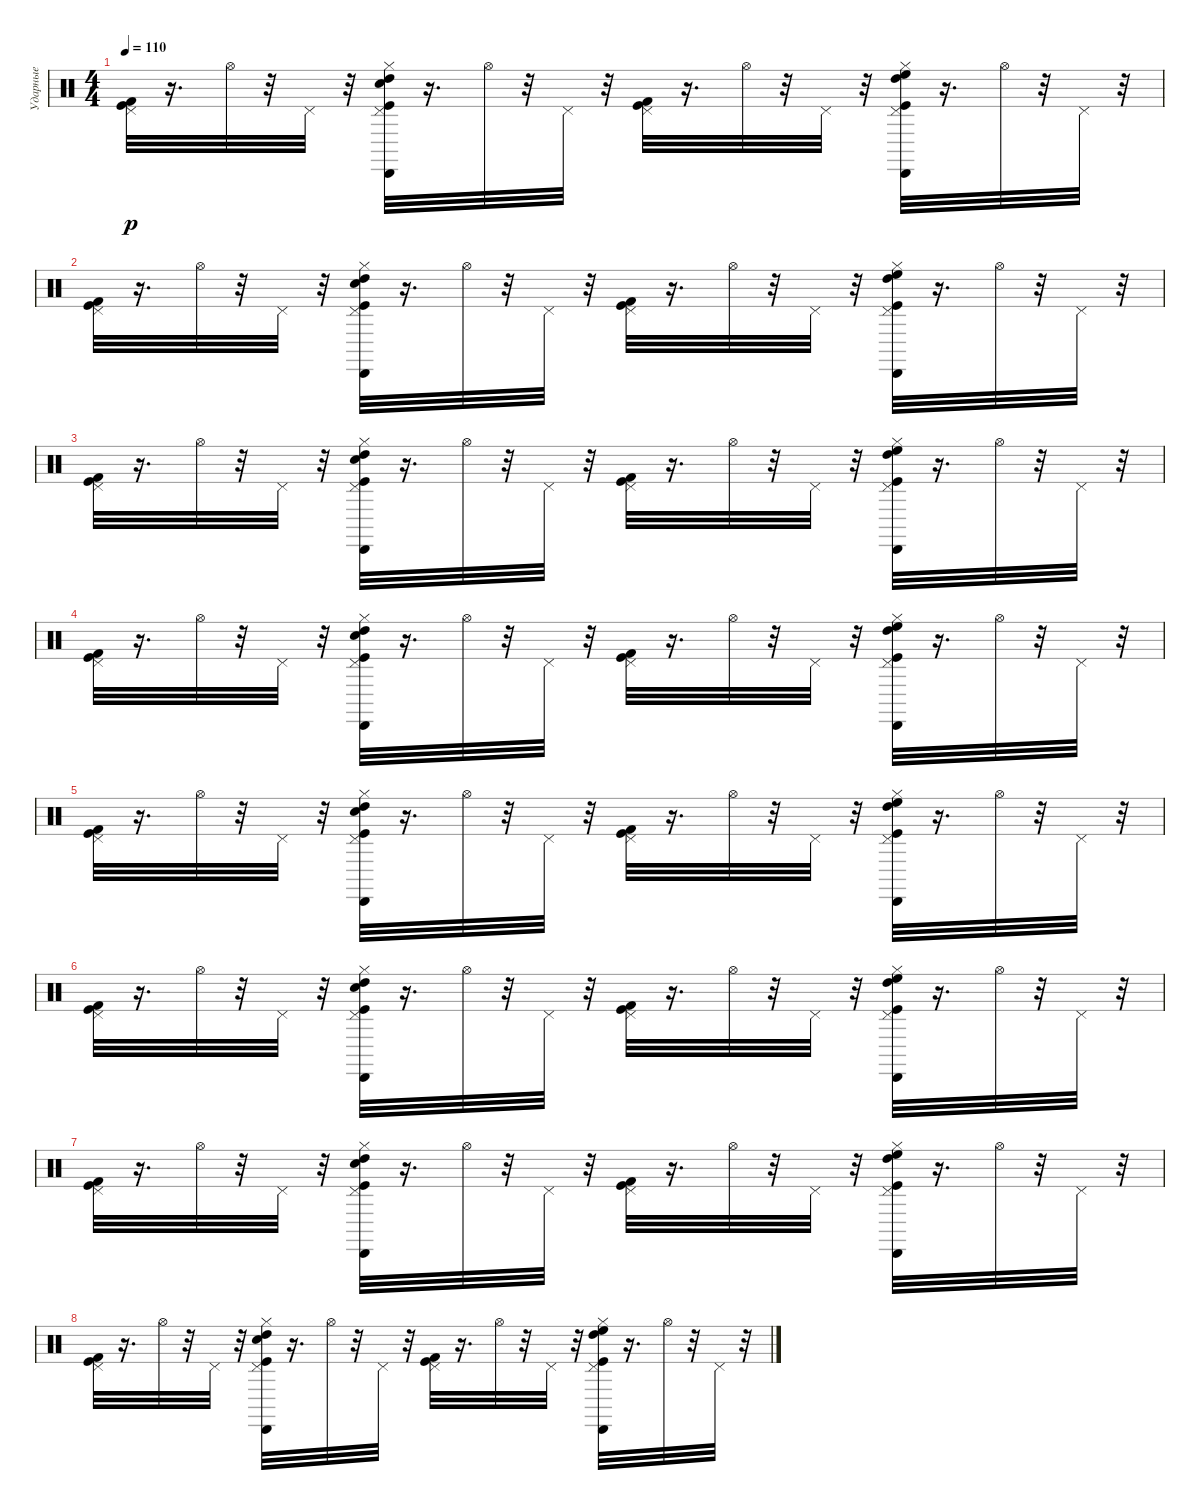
\track ("Ударные" "Ударные") {instrument percussion}
\staff
\articulation defaults
\ts (4 4)
\tempo 110
\clef neutral
\ks c
("Pedal Hi-Hat (hit)" "Kick (hit) 2" "Kick (hit)").32{dy p} r.16{d} "Hi-Hat (open)".32 r.32 "Pedal Hi-Hat (hit)".32 r.32 ("Kick (hit)" "High Tom (hit)" "Cabasa (hit)" "Hi-Hat (closed)" "Pedal Hi-Hat (hit)" "Electric Snare (hit)").32 r.16{d} "Hi-Hat (open)".32 r.32 "Pedal Hi-Hat (hit)".32 r.32 ("Pedal Hi-Hat (hit)" "Kick (hit) 2" "Kick (hit)").32 r.16{d} "Hi-Hat (open)".32 r.32 "Pedal Hi-Hat (hit)".32 r.32 ("Kick (hit)" "High Floor Tom (hit)" "High Tom (hit)" "Cabasa (hit)" "Hi-Hat (closed)" "Pedal Hi-Hat (hit)").32 r.16{d} "Hi-Hat (open)".32 r.32 "Pedal Hi-Hat (hit)".32 r.32 |
("Pedal Hi-Hat (hit)" "Kick (hit) 2" "Kick (hit)").32 r.16{d} "Hi-Hat (open)".32 r.32 "Pedal Hi-Hat (hit)".32 r.32 ("Kick (hit)" "High Tom (hit)" "Cabasa (hit)" "Hi-Hat (closed)" "Pedal Hi-Hat (hit)" "Electric Snare (hit)").32 r.16{d} "Hi-Hat (open)".32 r.32 "Pedal Hi-Hat (hit)".32 r.32 ("Pedal Hi-Hat (hit)" "Kick (hit) 2" "Kick (hit)").32 r.16{d} "Hi-Hat (open)".32 r.32 "Pedal Hi-Hat (hit)".32 r.32 ("Kick (hit)" "High Floor Tom (hit)" "High Tom (hit)" "Cabasa (hit)" "Hi-Hat (closed)" "Pedal Hi-Hat (hit)").32 r.16{d} "Hi-Hat (open)".32 r.32 "Pedal Hi-Hat (hit)".32 r.32 |
("Pedal Hi-Hat (hit)" "Kick (hit) 2" "Kick (hit)").32 r.16{d} "Hi-Hat (open)".32 r.32 "Pedal Hi-Hat (hit)".32 r.32 ("Kick (hit)" "High Tom (hit)" "Cabasa (hit)" "Hi-Hat (closed)" "Pedal Hi-Hat (hit)" "Electric Snare (hit)").32 r.16{d} "Hi-Hat (open)".32 r.32 "Pedal Hi-Hat (hit)".32 r.32 ("Pedal Hi-Hat (hit)" "Kick (hit) 2" "Kick (hit)").32 r.16{d} "Hi-Hat (open)".32 r.32 "Pedal Hi-Hat (hit)".32 r.32 ("Kick (hit)" "High Floor Tom (hit)" "High Tom (hit)" "Cabasa (hit)" "Hi-Hat (closed)" "Pedal Hi-Hat (hit)").32 r.16{d} "Hi-Hat (open)".32 r.32 "Pedal Hi-Hat (hit)".32 r.32 |
("Pedal Hi-Hat (hit)" "Kick (hit) 2" "Kick (hit)").32 r.16{d} "Hi-Hat (open)".32 r.32 "Pedal Hi-Hat (hit)".32 r.32 ("Kick (hit)" "High Tom (hit)" "Cabasa (hit)" "Hi-Hat (closed)" "Pedal Hi-Hat (hit)" "Electric Snare (hit)").32 r.16{d} "Hi-Hat (open)".32 r.32 "Pedal Hi-Hat (hit)".32 r.32 ("Pedal Hi-Hat (hit)" "Kick (hit) 2" "Kick (hit)").32 r.16{d} "Hi-Hat (open)".32 r.32 "Pedal Hi-Hat (hit)".32 r.32 ("Kick (hit)" "High Floor Tom (hit)" "High Tom (hit)" "Cabasa (hit)" "Hi-Hat (closed)" "Pedal Hi-Hat (hit)").32 r.16{d} "Hi-Hat (open)".32 r.32 "Pedal Hi-Hat (hit)".32 r.32 |
("Pedal Hi-Hat (hit)" "Kick (hit) 2" "Kick (hit)").32 r.16{d} "Hi-Hat (open)".32 r.32 "Pedal Hi-Hat (hit)".32 r.32 ("Kick (hit)" "High Tom (hit)" "Cabasa (hit)" "Hi-Hat (closed)" "Pedal Hi-Hat (hit)" "Electric Snare (hit)").32 r.16{d} "Hi-Hat (open)".32 r.32 "Pedal Hi-Hat (hit)".32 r.32 ("Pedal Hi-Hat (hit)" "Kick (hit) 2" "Kick (hit)").32 r.16{d} "Hi-Hat (open)".32 r.32 "Pedal Hi-Hat (hit)".32 r.32 ("Kick (hit)" "High Floor Tom (hit)" "High Tom (hit)" "Cabasa (hit)" "Hi-Hat (closed)" "Pedal Hi-Hat (hit)").32 r.16{d} "Hi-Hat (open)".32 r.32 "Pedal Hi-Hat (hit)".32 r.32 |
("Pedal Hi-Hat (hit)" "Kick (hit) 2" "Kick (hit)").32 r.16{d} "Hi-Hat (open)".32 r.32 "Pedal Hi-Hat (hit)".32 r.32 ("Kick (hit)" "High Tom (hit)" "Cabasa (hit)" "Hi-Hat (closed)" "Pedal Hi-Hat (hit)" "Electric Snare (hit)").32 r.16{d} "Hi-Hat (open)".32 r.32 "Pedal Hi-Hat (hit)".32 r.32 ("Pedal Hi-Hat (hit)" "Kick (hit) 2" "Kick (hit)").32 r.16{d} "Hi-Hat (open)".32 r.32 "Pedal Hi-Hat (hit)".32 r.32 ("Kick (hit)" "High Floor Tom (hit)" "High Tom (hit)" "Cabasa (hit)" "Hi-Hat (closed)" "Pedal Hi-Hat (hit)").32 r.16{d} "Hi-Hat (open)".32 r.32 "Pedal Hi-Hat (hit)".32 r.32 |
("Pedal Hi-Hat (hit)" "Kick (hit) 2" "Kick (hit)").32 r.16{d} "Hi-Hat (open)".32 r.32 "Pedal Hi-Hat (hit)".32 r.32 ("Kick (hit)" "High Tom (hit)" "Cabasa (hit)" "Hi-Hat (closed)" "Pedal Hi-Hat (hit)" "Electric Snare (hit)").32 r.16{d} "Hi-Hat (open)".32 r.32 "Pedal Hi-Hat (hit)".32 r.32 ("Pedal Hi-Hat (hit)" "Kick (hit) 2" "Kick (hit)").32 r.16{d} "Hi-Hat (open)".32 r.32 "Pedal Hi-Hat (hit)".32 r.32 ("Kick (hit)" "High Floor Tom (hit)" "High Tom (hit)" "Cabasa (hit)" "Hi-Hat (closed)" "Pedal Hi-Hat (hit)").32 r.16{d} "Hi-Hat (open)".32 r.32 "Pedal Hi-Hat (hit)".32 r.32 |
("Pedal Hi-Hat (hit)" "Kick (hit) 2" "Kick (hit)").32 r.16{d} "Hi-Hat (open)".32 r.32 "Pedal Hi-Hat (hit)".32 r.32 ("Kick (hit)" "High Tom (hit)" "Cabasa (hit)" "Hi-Hat (closed)" "Pedal Hi-Hat (hit)" "Electric Snare (hit)").32 r.16{d} "Hi-Hat (open)".32 r.32 "Pedal Hi-Hat (hit)".32 r.32 ("Pedal Hi-Hat (hit)" "Kick (hit) 2" "Kick (hit)").32 r.16{d} "Hi-Hat (open)".32 r.32 "Pedal Hi-Hat (hit)".32 r.32 ("Kick (hit)" "High Floor Tom (hit)" "High Tom (hit)" "Cabasa (hit)" "Hi-Hat (closed)" "Pedal Hi-Hat (hit)").32 r.16{d} "Hi-Hat (open)".32 r.32 "Pedal Hi-Hat (hit)".32 r.32
